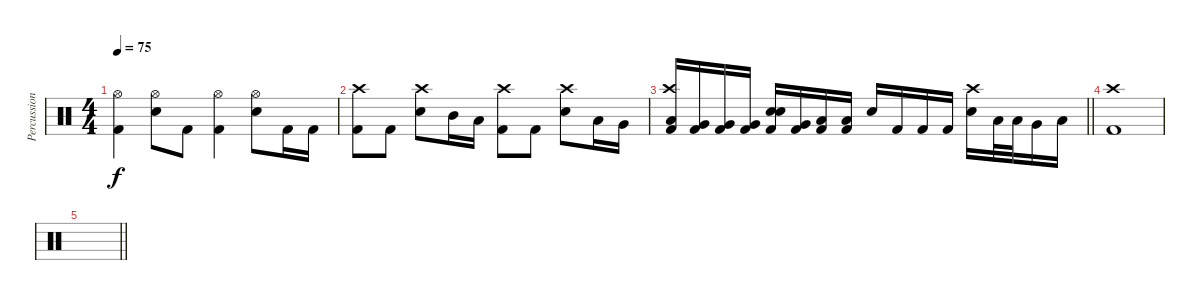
\track ("Percussions" "Percussion") {instrument percussion}
\staff {score}
\articulation defaults
\ts (4 4)
\tempo 75
\clef neutral
\ks c
("Hi-Hat (open)" "Kick (hit) 2").4{dy f} ("Hi-Hat (open)" "Electric Snare (hit)").8 "Kick (hit) 2".8 ("Hi-Hat (open)" "Kick (hit) 2").4 ("Hi-Hat (open)" "Electric Snare (hit)").8 "Kick (hit) 2".16 "Kick (hit) 2".16 |
("Crash high (hit)" "Kick (hit) 2").8 "Kick (hit) 2".8 ("Crash high (hit)" "Electric Snare (hit)").8 "Mid Tom (hit)".16 "Low Tom (hit)".16 ("Crash high (hit)" "Kick (hit) 2").8 "Kick (hit) 2".8 ("Crash high (hit)" "Electric Snare (hit)").8 "Low Tom (hit)".16 "Very Low Tom (hit)".16 |
\barLineRight lightlight
("Crash high (hit)" "Low Tom (hit)" "Kick (hit) 2").16 ("Very Low Tom (hit)" "Kick (hit) 2").16 ("Very Low Tom (hit)" "Kick (hit) 2").16 ("Very Low Tom (hit)" "Kick (hit) 2").16 ("Electric Snare (hit)" "Electric Snare (hit)" "Kick (hit) 2").16 ("Very Low Tom (hit)" "Kick (hit) 2").16 ("Low Floor Tom (hit)" "Kick (hit) 2").16 ("Low Floor Tom (hit)" "Kick (hit) 2").16 "Electric Snare (hit)".16 "Kick (hit) 2".16 "Kick (hit) 2".16 "Kick (hit) 2".16 ("Crash high (hit)" "Electric Snare (hit)").16 "Low Tom (hit)".32 "Low Tom (hit)".32 "Very Low Tom (hit)".16 "Low Floor Tom (hit)".16 |
("Crash high (hit)" "Kick (hit) 2").1 |
\barLineRight lightlight
